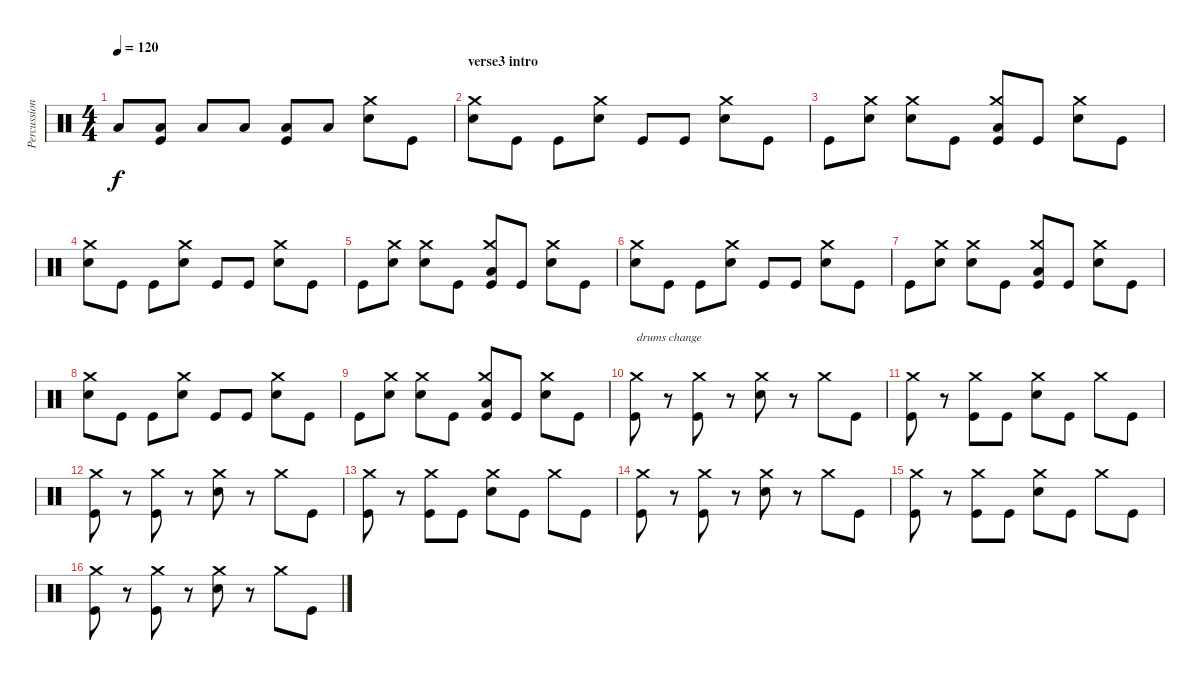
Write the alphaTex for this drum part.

\track ("Percussion" "Percussion") {instrument percussion}
\staff {score}
\articulation defaults
\ts (4 4)
\tempo 120
\clef neutral
\ks c "Low Floor Tom (hit)".8{dy f}
("Low Floor Tom (hit)" "Kick (hit)").8 "Low Floor Tom (hit)".8 "Low Floor Tom (hit)".8 ("Low Floor Tom (hit)" "Kick (hit)").8 "Low Floor Tom (hit)".8 ("Crash medium (hit)" "Electric Snare (hit)").8 "Kick (hit)".8 |
\section ("" "verse3 intro")
("Crash medium (hit)" "Electric Snare (hit)").8 "Kick (hit)".8 "Kick (hit)".8 ("Crash medium (hit)" "Electric Snare (hit)").8 "Kick (hit)".8 "Kick (hit)".8 ("Crash medium (hit)" "Electric Snare (hit)").8 "Kick (hit)".8 |
"Kick (hit)".8 ("Crash medium (hit)" "Electric Snare (hit)").8 ("Crash medium (hit)" "Electric Snare (hit)").8 "Kick (hit)".8 ("Crash medium (hit)" "Low Tom (hit)" "Kick (hit)").8 "Kick (hit)".8 ("Crash medium (hit)" "Electric Snare (hit)").8 "Kick (hit)".8 |
("Crash medium (hit)" "Electric Snare (hit)").8 "Kick (hit)".8 "Kick (hit)".8 ("Crash medium (hit)" "Electric Snare (hit)").8 "Kick (hit)".8 "Kick (hit)".8 ("Crash medium (hit)" "Electric Snare (hit)").8 "Kick (hit)".8 |
"Kick (hit)".8 ("Crash medium (hit)" "Electric Snare (hit)").8 ("Crash medium (hit)" "Electric Snare (hit)").8 "Kick (hit)".8 ("Crash medium (hit)" "Low Tom (hit)" "Kick (hit)").8 "Kick (hit)".8 ("Crash medium (hit)" "Electric Snare (hit)").8 "Kick (hit)".8 |
("Crash medium (hit)" "Electric Snare (hit)").8 "Kick (hit)".8 "Kick (hit)".8 ("Crash medium (hit)" "Electric Snare (hit)").8 "Kick (hit)".8 "Kick (hit)".8 ("Crash medium (hit)" "Electric Snare (hit)").8 "Kick (hit)".8 |
"Kick (hit)".8 ("Crash medium (hit)" "Electric Snare (hit)").8 ("Crash medium (hit)" "Electric Snare (hit)").8 "Kick (hit)".8 ("Crash medium (hit)" "Low Tom (hit)" "Kick (hit)").8 "Kick (hit)".8 ("Crash medium (hit)" "Electric Snare (hit)").8 "Kick (hit)".8 |
("Crash medium (hit)" "Electric Snare (hit)").8 "Kick (hit)".8 "Kick (hit)".8 ("Crash medium (hit)" "Electric Snare (hit)").8 "Kick (hit)".8 "Kick (hit)".8 ("Crash medium (hit)" "Electric Snare (hit)").8 "Kick (hit)".8 |
"Kick (hit)".8 ("Crash medium (hit)" "Electric Snare (hit)").8 ("Crash medium (hit)" "Electric Snare (hit)").8 "Kick (hit)".8 ("Crash medium (hit)" "Low Tom (hit)" "Kick (hit)").8 "Kick (hit)".8 ("Crash medium (hit)" "Electric Snare (hit)").8 "Kick (hit)".8 |
("Crash medium (hit)" "Kick (hit)").8{txt "drums change"} r.8 ("Crash medium (hit)" "Kick (hit)").8 r.8 ("Crash medium (hit)" "Electric Snare (hit)").8 r.8 "Crash medium (hit)".8 "Kick (hit)".8 |
("Crash medium (hit)" "Kick (hit)").8 r.8 ("Crash medium (hit)" "Kick (hit)").8 "Kick (hit)".8 ("Crash medium (hit)" "Electric Snare (hit)").8 "Kick (hit)".8 "Crash medium (hit)".8 "Kick (hit)".8 |
("Crash medium (hit)" "Kick (hit)").8 r.8 ("Crash medium (hit)" "Kick (hit)").8 r.8 ("Crash medium (hit)" "Electric Snare (hit)").8 r.8 "Crash medium (hit)".8 "Kick (hit)".8 |
("Crash medium (hit)" "Kick (hit)").8 r.8 ("Crash medium (hit)" "Kick (hit)").8 "Kick (hit)".8 ("Crash medium (hit)" "Electric Snare (hit)").8 "Kick (hit)".8 "Crash medium (hit)".8 "Kick (hit)".8 |
("Crash medium (hit)" "Kick (hit)").8 r.8 ("Crash medium (hit)" "Kick (hit)").8 r.8 ("Crash medium (hit)" "Electric Snare (hit)").8 r.8 "Crash medium (hit)".8 "Kick (hit)".8 |
("Crash medium (hit)" "Kick (hit)").8 r.8 ("Crash medium (hit)" "Kick (hit)").8 "Kick (hit)".8 ("Crash medium (hit)" "Electric Snare (hit)").8 "Kick (hit)".8 "Crash medium (hit)".8 "Kick (hit)".8 |
("Crash medium (hit)" "Kick (hit)").8 r.8 ("Crash medium (hit)" "Kick (hit)").8 r.8 ("Crash medium (hit)" "Electric Snare (hit)").8 r.8 "Crash medium (hit)".8 "Kick (hit)".8
